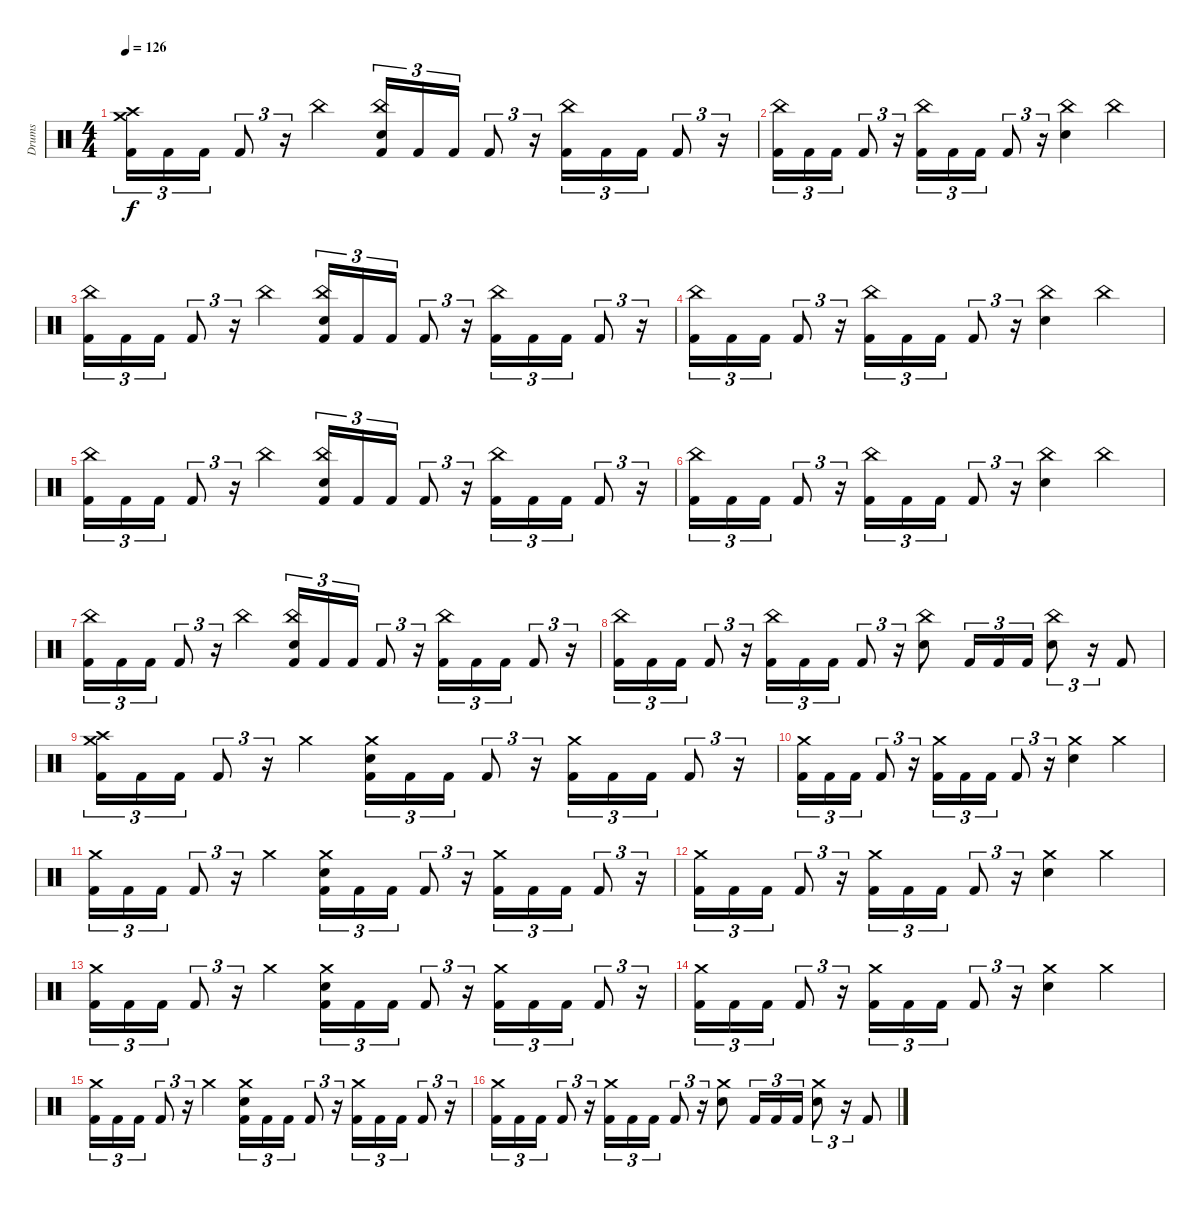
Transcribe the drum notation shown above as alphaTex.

\track ("Drums" "Drums") {instrument percussion}
\staff {score}
\articulation defaults
\ts (4 4)
\tempo 126
\clef neutral
\ks c
("Crash medium (hit)" "Crash high (hit)" "Kick (hit) 2").16{tu (3 2) dy f} "Kick (hit) 2".16{tu (3 2)} "Kick (hit) 2".16{tu (3 2)} "Kick (hit) 2".8{tu (3 2)} r.16{tu (3 2)} "China (hit)".4 ("China (hit)" "Electric Snare (hit)" "Kick (hit) 2").16{tu (3 2)} "Kick (hit) 2".16{tu (3 2)} "Kick (hit) 2".16{tu (3 2)} "Kick (hit) 2".8{tu (3 2)} r.16{tu (3 2)} ("China (hit)" "Kick (hit) 2").16{tu (3 2)} "Kick (hit) 2".16{tu (3 2)} "Kick (hit) 2".16{tu (3 2)} "Kick (hit) 2".8{tu (3 2)} r.16{tu (3 2)} |
("China (hit)" "Kick (hit) 2").16{tu (3 2)} "Kick (hit) 2".16{tu (3 2)} "Kick (hit) 2".16{tu (3 2)} "Kick (hit) 2".8{tu (3 2)} r.16{tu (3 2)} ("China (hit)" "Kick (hit) 2").16{tu (3 2)} "Kick (hit) 2".16{tu (3 2)} "Kick (hit) 2".16{tu (3 2)} "Kick (hit) 2".8{tu (3 2)} r.16{tu (3 2)} ("China (hit)" "Electric Snare (hit)").4 "China (hit)".4 |
("China (hit)" "Kick (hit) 2").16{tu (3 2)} "Kick (hit) 2".16{tu (3 2)} "Kick (hit) 2".16{tu (3 2)} "Kick (hit) 2".8{tu (3 2)} r.16{tu (3 2)} "China (hit)".4 ("China (hit)" "Electric Snare (hit)" "Kick (hit) 2").16{tu (3 2)} "Kick (hit) 2".16{tu (3 2)} "Kick (hit) 2".16{tu (3 2)} "Kick (hit) 2".8{tu (3 2)} r.16{tu (3 2)} ("China (hit)" "Kick (hit) 2").16{tu (3 2)} "Kick (hit) 2".16{tu (3 2)} "Kick (hit) 2".16{tu (3 2)} "Kick (hit) 2".8{tu (3 2)} r.16{tu (3 2)} |
("China (hit)" "Kick (hit) 2").16{tu (3 2)} "Kick (hit) 2".16{tu (3 2)} "Kick (hit) 2".16{tu (3 2)} "Kick (hit) 2".8{tu (3 2)} r.16{tu (3 2)} ("China (hit)" "Kick (hit) 2").16{tu (3 2)} "Kick (hit) 2".16{tu (3 2)} "Kick (hit) 2".16{tu (3 2)} "Kick (hit) 2".8{tu (3 2)} r.16{tu (3 2)} ("China (hit)" "Electric Snare (hit)").4 "China (hit)".4 |
("China (hit)" "Kick (hit) 2").16{tu (3 2)} "Kick (hit) 2".16{tu (3 2)} "Kick (hit) 2".16{tu (3 2)} "Kick (hit) 2".8{tu (3 2)} r.16{tu (3 2)} "China (hit)".4 ("China (hit)" "Electric Snare (hit)" "Kick (hit) 2").16{tu (3 2)} "Kick (hit) 2".16{tu (3 2)} "Kick (hit) 2".16{tu (3 2)} "Kick (hit) 2".8{tu (3 2)} r.16{tu (3 2)} ("China (hit)" "Kick (hit) 2").16{tu (3 2)} "Kick (hit) 2".16{tu (3 2)} "Kick (hit) 2".16{tu (3 2)} "Kick (hit) 2".8{tu (3 2)} r.16{tu (3 2)} |
("China (hit)" "Kick (hit) 2").16{tu (3 2)} "Kick (hit) 2".16{tu (3 2)} "Kick (hit) 2".16{tu (3 2)} "Kick (hit) 2".8{tu (3 2)} r.16{tu (3 2)} ("China (hit)" "Kick (hit) 2").16{tu (3 2)} "Kick (hit) 2".16{tu (3 2)} "Kick (hit) 2".16{tu (3 2)} "Kick (hit) 2".8{tu (3 2)} r.16{tu (3 2)} ("China (hit)" "Electric Snare (hit)").4 "China (hit)".4 |
("China (hit)" "Kick (hit) 2").16{tu (3 2)} "Kick (hit) 2".16{tu (3 2)} "Kick (hit) 2".16{tu (3 2)} "Kick (hit) 2".8{tu (3 2)} r.16{tu (3 2)} "China (hit)".4 ("China (hit)" "Electric Snare (hit)" "Kick (hit) 2").16{tu (3 2)} "Kick (hit) 2".16{tu (3 2)} "Kick (hit) 2".16{tu (3 2)} "Kick (hit) 2".8{tu (3 2)} r.16{tu (3 2)} ("China (hit)" "Kick (hit) 2").16{tu (3 2)} "Kick (hit) 2".16{tu (3 2)} "Kick (hit) 2".16{tu (3 2)} "Kick (hit) 2".8{tu (3 2)} r.16{tu (3 2)} |
("China (hit)" "Kick (hit) 2").16{tu (3 2)} "Kick (hit) 2".16{tu (3 2)} "Kick (hit) 2".16{tu (3 2)} "Kick (hit) 2".8{tu (3 2)} r.16{tu (3 2)} ("China (hit)" "Kick (hit) 2").16{tu (3 2)} "Kick (hit) 2".16{tu (3 2)} "Kick (hit) 2".16{tu (3 2)} "Kick (hit) 2".8{tu (3 2)} r.16{tu (3 2)} ("China (hit)" "Electric Snare (hit)").8 "Kick (hit) 2".16{tu (3 2)} "Kick (hit) 2".16{tu (3 2)} "Kick (hit) 2".16{tu (3 2)} ("China (hit)" "Electric Snare (hit)").8{tu (3 2)} r.16{tu (3 2)} "Kick (hit) 2".8 |
("Crash medium (hit)" "Crash high (hit)" "Kick (hit) 2").16{tu (3 2)} "Kick (hit) 2".16{tu (3 2)} "Kick (hit) 2".16{tu (3 2)} "Kick (hit) 2".8{tu (3 2)} r.16{tu (3 2)} "Crash medium (hit)".4 ("Crash medium (hit)" "Electric Snare (hit)" "Kick (hit) 2").16{tu (3 2)} "Kick (hit) 2".16{tu (3 2)} "Kick (hit) 2".16{tu (3 2)} "Kick (hit) 2".8{tu (3 2)} r.16{tu (3 2)} ("Crash medium (hit)" "Kick (hit) 2").16{tu (3 2)} "Kick (hit) 2".16{tu (3 2)} "Kick (hit) 2".16{tu (3 2)} "Kick (hit) 2".8{tu (3 2)} r.16{tu (3 2)} |
("Crash medium (hit)" "Kick (hit) 2").16{tu (3 2)} "Kick (hit) 2".16{tu (3 2)} "Kick (hit) 2".16{tu (3 2)} "Kick (hit) 2".8{tu (3 2)} r.16{tu (3 2)} ("Crash medium (hit)" "Kick (hit) 2").16{tu (3 2)} "Kick (hit) 2".16{tu (3 2)} "Kick (hit) 2".16{tu (3 2)} "Kick (hit) 2".8{tu (3 2)} r.16{tu (3 2)} ("Crash medium (hit)" "Electric Snare (hit)").4 "Crash medium (hit)".4 |
("Crash medium (hit)" "Kick (hit) 2").16{tu (3 2)} "Kick (hit) 2".16{tu (3 2)} "Kick (hit) 2".16{tu (3 2)} "Kick (hit) 2".8{tu (3 2)} r.16{tu (3 2)} "Crash medium (hit)".4 ("Crash medium (hit)" "Electric Snare (hit)" "Kick (hit) 2").16{tu (3 2)} "Kick (hit) 2".16{tu (3 2)} "Kick (hit) 2".16{tu (3 2)} "Kick (hit) 2".8{tu (3 2)} r.16{tu (3 2)} ("Crash medium (hit)" "Kick (hit) 2").16{tu (3 2)} "Kick (hit) 2".16{tu (3 2)} "Kick (hit) 2".16{tu (3 2)} "Kick (hit) 2".8{tu (3 2)} r.16{tu (3 2)} |
("Crash medium (hit)" "Kick (hit) 2").16{tu (3 2)} "Kick (hit) 2".16{tu (3 2)} "Kick (hit) 2".16{tu (3 2)} "Kick (hit) 2".8{tu (3 2)} r.16{tu (3 2)} ("Crash medium (hit)" "Kick (hit) 2").16{tu (3 2)} "Kick (hit) 2".16{tu (3 2)} "Kick (hit) 2".16{tu (3 2)} "Kick (hit) 2".8{tu (3 2)} r.16{tu (3 2)} ("Crash medium (hit)" "Electric Snare (hit)").4 "Crash medium (hit)".4 |
("Crash medium (hit)" "Kick (hit) 2").16{tu (3 2)} "Kick (hit) 2".16{tu (3 2)} "Kick (hit) 2".16{tu (3 2)} "Kick (hit) 2".8{tu (3 2)} r.16{tu (3 2)} "Crash medium (hit)".4 ("Crash medium (hit)" "Electric Snare (hit)" "Kick (hit) 2").16{tu (3 2)} "Kick (hit) 2".16{tu (3 2)} "Kick (hit) 2".16{tu (3 2)} "Kick (hit) 2".8{tu (3 2)} r.16{tu (3 2)} ("Crash medium (hit)" "Kick (hit) 2").16{tu (3 2)} "Kick (hit) 2".16{tu (3 2)} "Kick (hit) 2".16{tu (3 2)} "Kick (hit) 2".8{tu (3 2)} r.16{tu (3 2)} |
("Crash medium (hit)" "Kick (hit) 2").16{tu (3 2)} "Kick (hit) 2".16{tu (3 2)} "Kick (hit) 2".16{tu (3 2)} "Kick (hit) 2".8{tu (3 2)} r.16{tu (3 2)} ("Crash medium (hit)" "Kick (hit) 2").16{tu (3 2)} "Kick (hit) 2".16{tu (3 2)} "Kick (hit) 2".16{tu (3 2)} "Kick (hit) 2".8{tu (3 2)} r.16{tu (3 2)} ("Crash medium (hit)" "Electric Snare (hit)").4 "Crash medium (hit)".4 |
("Crash medium (hit)" "Kick (hit) 2").16{tu (3 2)} "Kick (hit) 2".16{tu (3 2)} "Kick (hit) 2".16{tu (3 2)} "Kick (hit) 2".8{tu (3 2)} r.16{tu (3 2)} "Crash medium (hit)".4 ("Crash medium (hit)" "Electric Snare (hit)" "Kick (hit) 2").16{tu (3 2)} "Kick (hit) 2".16{tu (3 2)} "Kick (hit) 2".16{tu (3 2)} "Kick (hit) 2".8{tu (3 2)} r.16{tu (3 2)} ("Crash medium (hit)" "Kick (hit) 2").16{tu (3 2)} "Kick (hit) 2".16{tu (3 2)} "Kick (hit) 2".16{tu (3 2)} "Kick (hit) 2".8{tu (3 2)} r.16{tu (3 2)} |
("Crash medium (hit)" "Kick (hit) 2").16{tu (3 2)} "Kick (hit) 2".16{tu (3 2)} "Kick (hit) 2".16{tu (3 2)} "Kick (hit) 2".8{tu (3 2)} r.16{tu (3 2)} ("Crash medium (hit)" "Kick (hit) 2").16{tu (3 2)} "Kick (hit) 2".16{tu (3 2)} "Kick (hit) 2".16{tu (3 2)} "Kick (hit) 2".8{tu (3 2)} r.16{tu (3 2)} ("Crash medium (hit)" "Electric Snare (hit)").8 "Kick (hit) 2".16{tu (3 2)} "Kick (hit) 2".16{tu (3 2)} "Kick (hit) 2".16{tu (3 2)} ("Crash medium (hit)" "Electric Snare (hit)").8{tu (3 2)} r.16{tu (3 2)} "Kick (hit) 2".8
